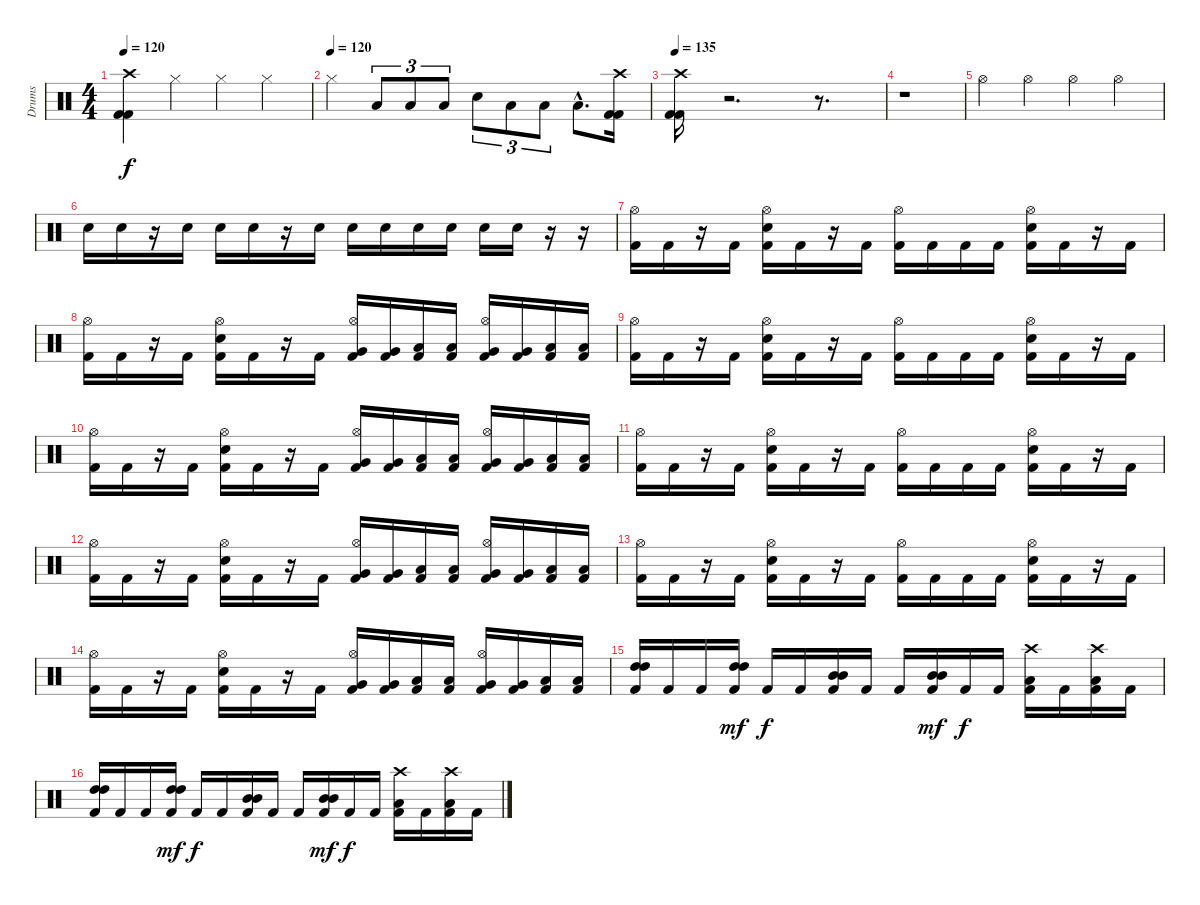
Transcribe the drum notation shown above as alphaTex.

\track ("Drums" "Drums") {instrument percussion}
\staff {score}
\articulation defaults
\ts (4 4)
\tempo 120
\clef neutral
\ks c
("Crash high (hit)" "Kick (hit) 2" "Kick (hit) 2").4{dy f volume 16} "Hi-Hat (closed)".4{volume 10} "Hi-Hat (closed)".4 "Hi-Hat (closed)".4 |
\tempo (120)
"Hi-Hat (closed)".4 "Low Tom (hit)".8{tu (3 2) volume 16} "Low Tom (hit)".8{tu (3 2)} "Low Tom (hit)".8{tu (3 2)} "Electric Snare (hit)".8{tu (3 2)} "Low Tom (hit)".8{tu (3 2)} "Low Tom (hit)".8{tu (3 2)} "Low Tom (hit)"{hac}.8{d} ("Crash high (hit)" "Kick (hit) 2" "Kick (hit) 2").16 |
\tempo 135
("Crash high (hit)" "Kick (hit) 2" "Kick (hit) 2").16 r.2{d} r.8{d} |
r.1 |
"Hi-Hat (open)".4 "Hi-Hat (open)".4 "Hi-Hat (open)".4 "Hi-Hat (open)".4 |
"Electric Snare (hit)".16 "Electric Snare (hit)".16 r.16 "Electric Snare (hit)".16 "Electric Snare (hit)".16 "Electric Snare (hit)".16 r.16 "Electric Snare (hit)".16 "Electric Snare (hit)".16 "Electric Snare (hit)".16 "Electric Snare (hit)".16 "Electric Snare (hit)".16 "Electric Snare (hit)".16 "Electric Snare (hit)".16 r.16 r.16 |
("Hi-Hat (open)" "Kick (hit) 2").16 "Kick (hit) 2".16 r.16 "Kick (hit) 2".16 ("Hi-Hat (open)" "Electric Snare (hit)" "Kick (hit) 2").16 "Kick (hit) 2".16 r.16 "Kick (hit) 2".16 ("Hi-Hat (open)" "Kick (hit) 2").16 "Kick (hit) 2".16 "Kick (hit) 2".16 "Kick (hit) 2".16 ("Hi-Hat (open)" "Electric Snare (hit)" "Kick (hit) 2").16 "Kick (hit) 2".16 r.16 "Kick (hit) 2".16 |
("Hi-Hat (open)" "Kick (hit) 2").16 "Kick (hit) 2".16 r.16 "Kick (hit) 2".16 ("Hi-Hat (open)" "Electric Snare (hit)" "Kick (hit) 2").16 "Kick (hit) 2".16 r.16 "Kick (hit) 2".16 ("Hi-Hat (open)" "Very Low Tom (hit)" "Kick (hit) 2").16 ("Very Low Tom (hit)" "Kick (hit) 2").16 ("Low Floor Tom (hit)" "Kick (hit) 2").16 ("Low Floor Tom (hit)" "Kick (hit) 2").16 ("Hi-Hat (open)" "Very Low Tom (hit)" "Kick (hit) 2").16 ("Very Low Tom (hit)" "Kick (hit) 2").16 ("Low Floor Tom (hit)" "Kick (hit) 2").16 ("Low Floor Tom (hit)" "Kick (hit) 2").16 |
("Hi-Hat (open)" "Kick (hit) 2").16 "Kick (hit) 2".16 r.16 "Kick (hit) 2".16 ("Hi-Hat (open)" "Electric Snare (hit)" "Kick (hit) 2").16 "Kick (hit) 2".16 r.16 "Kick (hit) 2".16 ("Hi-Hat (open)" "Kick (hit) 2").16 "Kick (hit) 2".16 "Kick (hit) 2".16 "Kick (hit) 2".16 ("Hi-Hat (open)" "Electric Snare (hit)" "Kick (hit) 2").16 "Kick (hit) 2".16 r.16 "Kick (hit) 2".16 |
("Hi-Hat (open)" "Kick (hit) 2").16 "Kick (hit) 2".16 r.16 "Kick (hit) 2".16 ("Hi-Hat (open)" "Electric Snare (hit)" "Kick (hit) 2").16 "Kick (hit) 2".16 r.16 "Kick (hit) 2".16 ("Hi-Hat (open)" "Very Low Tom (hit)" "Kick (hit) 2").16 ("Very Low Tom (hit)" "Kick (hit) 2").16 ("Low Floor Tom (hit)" "Kick (hit) 2").16 ("Low Floor Tom (hit)" "Kick (hit) 2").16 ("Hi-Hat (open)" "Very Low Tom (hit)" "Kick (hit) 2").16 ("Very Low Tom (hit)" "Kick (hit) 2").16 ("Low Floor Tom (hit)" "Kick (hit) 2").16 ("Low Floor Tom (hit)" "Kick (hit) 2").16 |
("Hi-Hat (open)" "Kick (hit) 2").16 "Kick (hit) 2".16 r.16 "Kick (hit) 2".16 ("Hi-Hat (open)" "Electric Snare (hit)" "Kick (hit) 2").16 "Kick (hit) 2".16 r.16 "Kick (hit) 2".16 ("Hi-Hat (open)" "Kick (hit) 2").16 "Kick (hit) 2".16 "Kick (hit) 2".16 "Kick (hit) 2".16 ("Hi-Hat (open)" "Electric Snare (hit)" "Kick (hit) 2").16 "Kick (hit) 2".16 r.16 "Kick (hit) 2".16 |
("Hi-Hat (open)" "Kick (hit) 2").16 "Kick (hit) 2".16 r.16 "Kick (hit) 2".16 ("Hi-Hat (open)" "Electric Snare (hit)" "Kick (hit) 2").16 "Kick (hit) 2".16 r.16 "Kick (hit) 2".16 ("Hi-Hat (open)" "Very Low Tom (hit)" "Kick (hit) 2").16 ("Very Low Tom (hit)" "Kick (hit) 2").16 ("Low Floor Tom (hit)" "Kick (hit) 2").16 ("Low Floor Tom (hit)" "Kick (hit) 2").16 ("Hi-Hat (open)" "Very Low Tom (hit)" "Kick (hit) 2").16 ("Very Low Tom (hit)" "Kick (hit) 2").16 ("Low Floor Tom (hit)" "Kick (hit) 2").16 ("Low Floor Tom (hit)" "Kick (hit) 2").16 |
("Hi-Hat (open)" "Kick (hit) 2").16 "Kick (hit) 2".16 r.16 "Kick (hit) 2".16 ("Hi-Hat (open)" "Electric Snare (hit)" "Kick (hit) 2").16 "Kick (hit) 2".16 r.16 "Kick (hit) 2".16 ("Hi-Hat (open)" "Kick (hit) 2").16 "Kick (hit) 2".16 "Kick (hit) 2".16 "Kick (hit) 2".16 ("Hi-Hat (open)" "Electric Snare (hit)" "Kick (hit) 2").16 "Kick (hit) 2".16 r.16 "Kick (hit) 2".16 |
("Hi-Hat (open)" "Kick (hit) 2").16 "Kick (hit) 2".16 r.16 "Kick (hit) 2".16 ("Hi-Hat (open)" "Electric Snare (hit)" "Kick (hit) 2").16 "Kick (hit) 2".16 r.16 "Kick (hit) 2".16 ("Hi-Hat (open)" "Very Low Tom (hit)" "Kick (hit) 2").16 ("Very Low Tom (hit)" "Kick (hit) 2").16 ("Low Floor Tom (hit)" "Kick (hit) 2").16 ("Low Floor Tom (hit)" "Kick (hit) 2").16 ("Hi-Hat (open)" "Very Low Tom (hit)" "Kick (hit) 2").16 ("Very Low Tom (hit)" "Kick (hit) 2").16 ("Low Floor Tom (hit)" "Kick (hit) 2").16 ("Low Floor Tom (hit)" "Kick (hit) 2").16 |
("High Tom (hit)" "High Tom (hit)" "Kick (hit) 2").16 "Kick (hit) 2".16 "Kick (hit) 2".16 ("High Tom (hit)" "High Tom (hit)" "Kick (hit) 2").16{dy mf} "Kick (hit) 2".16{dy f} "Kick (hit) 2".16 ("Mid Tom (hit)" "Mid Tom (hit)" "Kick (hit) 2").16 "Kick (hit) 2".16 "Kick (hit) 2".16 ("Mid Tom (hit)" "Mid Tom (hit)" "Kick (hit) 2").16{dy mf} "Kick (hit) 2".16{dy f} "Kick (hit) 2".16 ("Crash high (hit)" "Low Floor Tom (hit)" "Kick (hit) 2").16 "Kick (hit) 2".16 ("Crash high (hit)" "Low Floor Tom (hit)" "Kick (hit) 2").16 "Kick (hit) 2".16 |
("High Tom (hit)" "High Tom (hit)" "Kick (hit) 2").16 "Kick (hit) 2".16 "Kick (hit) 2".16 ("High Tom (hit)" "High Tom (hit)" "Kick (hit) 2").16{dy mf} "Kick (hit) 2".16{dy f} "Kick (hit) 2".16 ("Mid Tom (hit)" "Mid Tom (hit)" "Kick (hit) 2").16 "Kick (hit) 2".16 "Kick (hit) 2".16 ("Mid Tom (hit)" "Mid Tom (hit)" "Kick (hit) 2").16{dy mf} "Kick (hit) 2".16{dy f} "Kick (hit) 2".16 ("Crash high (hit)" "Low Floor Tom (hit)" "Kick (hit) 2").16 "Kick (hit) 2".16 ("Crash high (hit)" "Low Floor Tom (hit)" "Kick (hit) 2").16 "Kick (hit) 2".16
